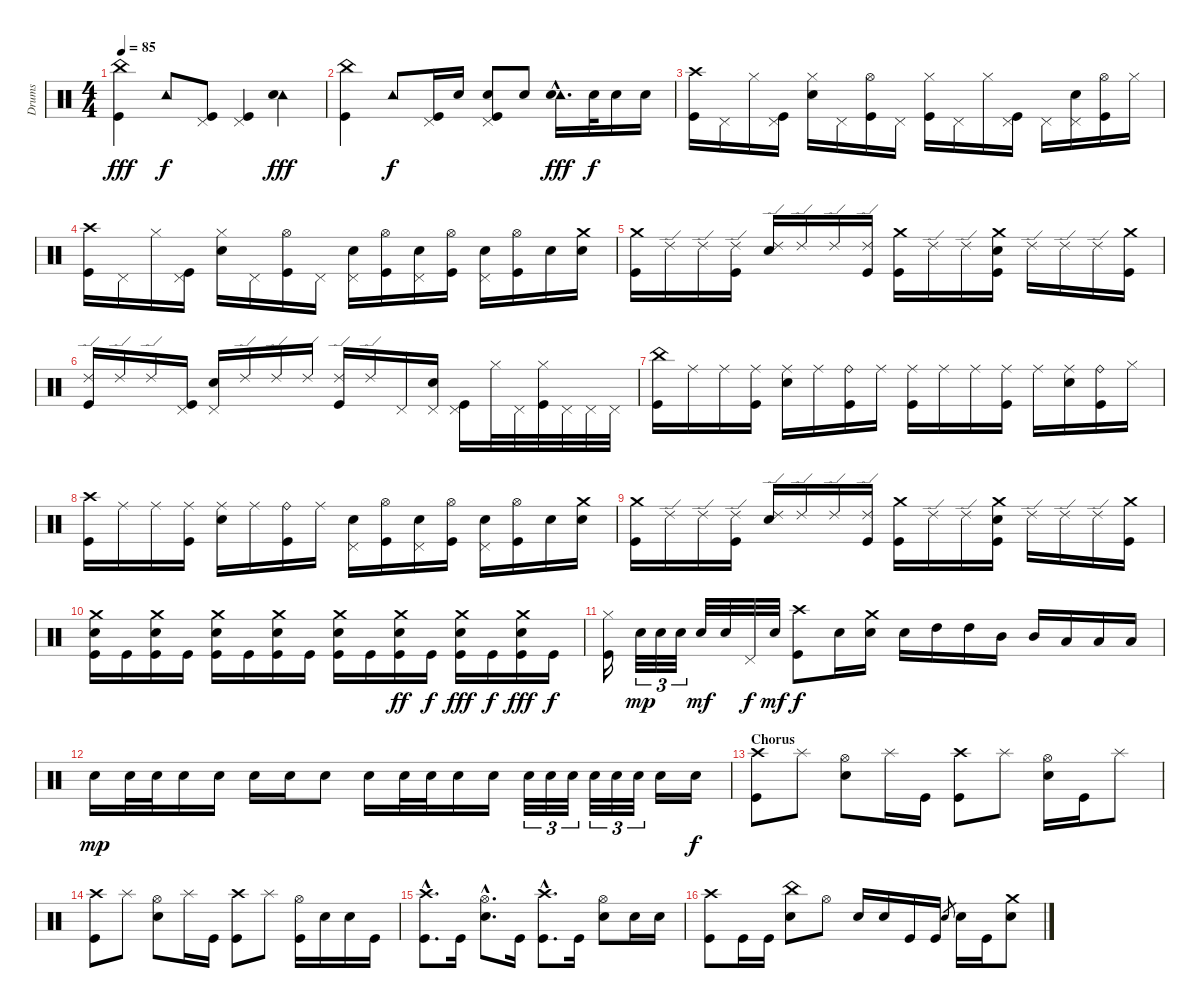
\track ("Drums" "Drums") {instrument percussion}
\staff {score}
\articulation defaults
\ts (4 4)
\tempo 85
\clef neutral
\ks c
("China (hit)" "Kick (hit)").4{dy fff} "Tambourine (hit)".8{dy f} ("Pedal Hi-Hat (hit)" "Kick (hit)").8 ("Pedal Hi-Hat (hit)" "Kick (hit)").4 ("Tambourine (hit)" "Electric Snare (hit)").4{dy fff} |
("China (hit)" "Kick (hit)").4 "Tambourine (hit)".8{dy f} ("Pedal Hi-Hat (hit)" "Kick (hit)").16 "Electric Snare (hit)".16 ("Electric Snare (hit)" "Pedal Hi-Hat (hit)" "Kick (hit)").8 "Electric Snare (hit)".8 ("Tambourine (hit)"{hac} "Electric Snare (hit)"{hac}).16{d dy fff} "Electric Snare (hit)".32{dy f} "Electric Snare (hit)".16 "Electric Snare (hit)".16 |
("Crash high (hit)" "Kick (hit)").16 "Pedal Hi-Hat (hit)".16 "Hi-Hat (closed)".16 ("Pedal Hi-Hat (hit)" "Kick (hit)").16 ("Hi-Hat (closed)" "Electric Snare (hit)").16 "Pedal Hi-Hat (hit)".16 ("Hi-Hat (open)" "Kick (hit)").16 "Pedal Hi-Hat (hit)".16 ("Hi-Hat (closed)" "Kick (hit)").16 "Pedal Hi-Hat (hit)".16 "Hi-Hat (closed)".16 ("Pedal Hi-Hat (hit)" "Kick (hit)").16 "Pedal Hi-Hat (hit)".16 ("Pedal Hi-Hat (hit)" "Electric Snare (hit)").16 ("Hi-Hat (open)" "Kick (hit)").16 "Hi-Hat (closed)".16 |
("Crash high (hit)" "Kick (hit)").16 "Pedal Hi-Hat (hit)".16 "Hi-Hat (closed)".16 ("Pedal Hi-Hat (hit)" "Kick (hit)").16 ("Hi-Hat (closed)" "Electric Snare (hit)").16 "Pedal Hi-Hat (hit)".16 ("Hi-Hat (open)" "Kick (hit)").16 "Pedal Hi-Hat (hit)".16 ("Pedal Hi-Hat (hit)" "Electric Snare (hit)").16 ("Hi-Hat (open)" "Kick (hit)").16 ("Pedal Hi-Hat (hit)" "Electric Snare (hit)").16 ("Hi-Hat (open)" "Kick (hit)").16 ("Pedal Hi-Hat (hit)" "Electric Snare (hit)").16 ("Hi-Hat (open)" "Kick (hit)").16 "Electric Snare (hit)".16 ("Crash medium (hit)" "Electric Snare (hit)").16 |
("Crash medium (hit)" "Kick (hit)").16 "Ride (edge) 2".16 "Ride (edge) 2".16 ("Ride (edge) 2" "Kick (hit)").16 ("Ride (edge) 2" "Electric Snare (hit)").16 "Ride (edge) 2".16 "Ride (edge) 2".16 ("Ride (edge) 2" "Kick (hit)").16 ("Crash medium (hit)" "Kick (hit)").16 "Ride (edge) 2".16 "Ride (edge) 2".16 ("Crash medium (hit)" "Electric Snare (hit)" "Kick (hit)").16 "Ride (edge) 2".16 "Ride (edge) 2".16 "Ride (edge) 2".16 ("Crash medium (hit)" "Kick (hit)").16 |
("Ride (edge) 2" "Kick (hit)").16 "Ride (edge) 2".16 "Ride (edge) 2".16 ("Pedal Hi-Hat (hit)" "Kick (hit)").16 ("Pedal Hi-Hat (hit)" "Electric Snare (hit)").16 "Ride (edge) 2".16 "Ride (edge) 2".16 "Ride (edge) 2".16 ("Ride (edge) 2" "Kick (hit)").16 "Ride (edge) 2".16 "Pedal Hi-Hat (hit)".16 ("Pedal Hi-Hat (hit)" "Electric Snare (hit)").16 ("Pedal Hi-Hat (hit)" "Kick (hit)").16 "Hi-Hat (closed)".32 "Pedal Hi-Hat (hit)".32 ("Hi-Hat (closed)" "Kick (hit)").32 "Pedal Hi-Hat (hit)".32 "Pedal Hi-Hat (hit)".32 "Pedal Hi-Hat (hit)".32 |
("China (hit)" "Kick (hit)").16 "Ride (middle)".16 "Ride (middle)".16 ("Ride (middle)" "Kick (hit)").16 ("Ride (middle)" "Electric Snare (hit)").16 "Ride (middle)".16 ("Ride (bell)" "Kick (hit)").16 "Ride (middle)".16 ("Ride (middle)" "Kick (hit)").16 "Ride (middle)".16 "Ride (middle)".16 ("Ride (middle)" "Kick (hit)").16 "Ride (middle)".16 ("Ride (middle)" "Electric Snare (hit)").16 ("Ride (bell)" "Kick (hit)").16 "Hi-Hat (closed)".16 |
("Crash high (hit)" "Kick (hit)").16 "Ride (middle)".16 "Ride (middle)".16 ("Ride (middle)" "Kick (hit)").16 ("Ride (middle)" "Electric Snare (hit)").16 "Ride (middle)".16 ("Ride (bell)" "Kick (hit)").16 "Ride (middle)".16 ("Pedal Hi-Hat (hit)" "Electric Snare (hit)").16 ("Hi-Hat (open)" "Kick (hit)").16 ("Pedal Hi-Hat (hit)" "Electric Snare (hit)").16 ("Hi-Hat (open)" "Kick (hit)").16 ("Pedal Hi-Hat (hit)" "Electric Snare (hit)").16 ("Hi-Hat (open)" "Kick (hit)").16 "Electric Snare (hit)".16 ("Crash medium (hit)" "Electric Snare (hit)").16 |
("Crash medium (hit)" "Kick (hit)").16 "Ride (edge) 2".16 "Ride (edge) 2".16 ("Ride (edge) 2" "Kick (hit)").16 ("Ride (edge) 2" "Electric Snare (hit)").16 "Ride (edge) 2".16 "Ride (edge) 2".16 ("Ride (edge) 2" "Kick (hit)").16 ("Crash medium (hit)" "Kick (hit)").16 "Ride (edge) 2".16 "Ride (edge) 2".16 ("Crash medium (hit)" "Electric Snare (hit)" "Kick (hit)").16 "Ride (edge) 2".16 "Ride (edge) 2".16 "Ride (edge) 2".16 ("Crash medium (hit)" "Kick (hit)").16 |
("Crash medium (hit)" "Electric Snare (hit)" "Kick (hit)").16 "Kick (hit)".16 ("Crash medium (hit)" "Electric Snare (hit)" "Kick (hit)").16 "Kick (hit)".16 ("Crash medium (hit)" "Electric Snare (hit)" "Kick (hit)").16 "Kick (hit)".16 ("Crash medium (hit)" "Electric Snare (hit)" "Kick (hit)").16 "Kick (hit)".16 ("Crash medium (hit)" "Electric Snare (hit)" "Kick (hit)").16 "Kick (hit)".16 ("Crash medium (hit)" "Electric Snare (hit)" "Kick (hit)").16{dy ff} "Kick (hit)".16{dy f} ("Crash medium (hit)" "Electric Snare (hit)" "Kick (hit)").16{dy fff} "Kick (hit)".16{dy f} ("Crash medium (hit)" "Electric Snare (hit)" "Kick (hit)").16{dy fff} "Kick (hit)".16{dy f} |
("Hi-Hat (closed)" "Kick (hit)").16 "Electric Snare (hit)".32{tu (3 2) dy mp} "Electric Snare (hit)".32{tu (3 2)} "Electric Snare (hit)".32{tu (3 2)} "Electric Snare (hit)".32{dy mf} "Electric Snare (hit)".32 "Pedal Hi-Hat (hit)".32{dy f} "Electric Snare (hit)".32{dy mf} ("Crash high (hit)" "Kick (hit)").8{dy f} "Electric Snare (hit)".16 ("Crash medium (hit)" "Electric Snare (hit)").16 "Electric Snare (hit)".16 "High Tom (hit)".16 "High Tom (hit)".16 "Mid Tom (hit)".16 "Mid Tom (hit)".16 "Low Tom (hit)".16 "Low Tom (hit)".16 "Low Floor Tom (hit)".16 |
"Electric Snare (hit)".16{dy mp} "Electric Snare (hit)".32 "Electric Snare (hit)".32 "Electric Snare (hit)".16 "Electric Snare (hit)".16 "Electric Snare (hit)".16 "Electric Snare (hit)".16 "Electric Snare (hit)".8 "Electric Snare (hit)".16 "Electric Snare (hit)".32 "Electric Snare (hit)".32 "Electric Snare (hit)".16 "Electric Snare (hit)".16 "Electric Snare (hit)".32{tu (3 2)} "Electric Snare (hit)".32{tu (3 2)} "Electric Snare (hit)".32{tu (3 2)} "Electric Snare (hit)".32{tu (3 2)} "Electric Snare (hit)".32{tu (3 2)} "Electric Snare (hit)".32{tu (3 2)} "Electric Snare (hit)".16 "Electric Snare (hit)".16{dy f} |
\section ("" "Chorus")
("Crash high (hit)" "Kick (hit)").8 "Splash (hit)".8 ("Hi-Hat (open)" "Electric Snare (hit)").8 "Splash (hit)".16 "Kick (hit)".16 ("Crash high (hit)" "Kick (hit)").8 "Splash (hit)".8 ("Hi-Hat (open)" "Electric Snare (hit)").16 "Kick (hit)".16 "Splash (hit)".8 |
("Crash high (hit)" "Kick (hit)").8 "Splash (hit)".8 ("Hi-Hat (open)" "Electric Snare (hit)").8 "Splash (hit)".16 "Kick (hit)".16 ("Crash high (hit)" "Kick (hit)").8 "Splash (hit)".8 ("Hi-Hat (open)" "Kick (hit)").16 "Electric Snare (hit)".16 "Electric Snare (hit)".16 "Kick (hit)".16 |
("Crash high (hit)"{hac} "Kick (hit)"{hac}).8{d} "Kick (hit)".16 ("Hi-Hat (open)"{hac} "Electric Snare (hit)"{hac}).8{d} "Kick (hit)".16 ("Crash high (hit)"{hac} "Kick (hit)"{hac}).8{d} "Kick (hit)".16 ("Hi-Hat (open)" "Electric Snare (hit)").8 "Electric Snare (hit)".16 "Electric Snare (hit)".16 |
("Crash high (hit)" "Kick (hit)").8 "Kick (hit)".16 "Kick (hit)".16 ("China (hit)" "Electric Snare (hit)").8 "Hi-Hat (open)".8 "Electric Snare (hit)".16 "Electric Snare (hit)".16 "Kick (hit)".16 "Kick (hit)".16 "Electric Snare (hit)".8{gr} "Electric Snare (hit)".16 "Kick (hit)".16 ("Crash medium (hit)" "Electric Snare (hit)").8
